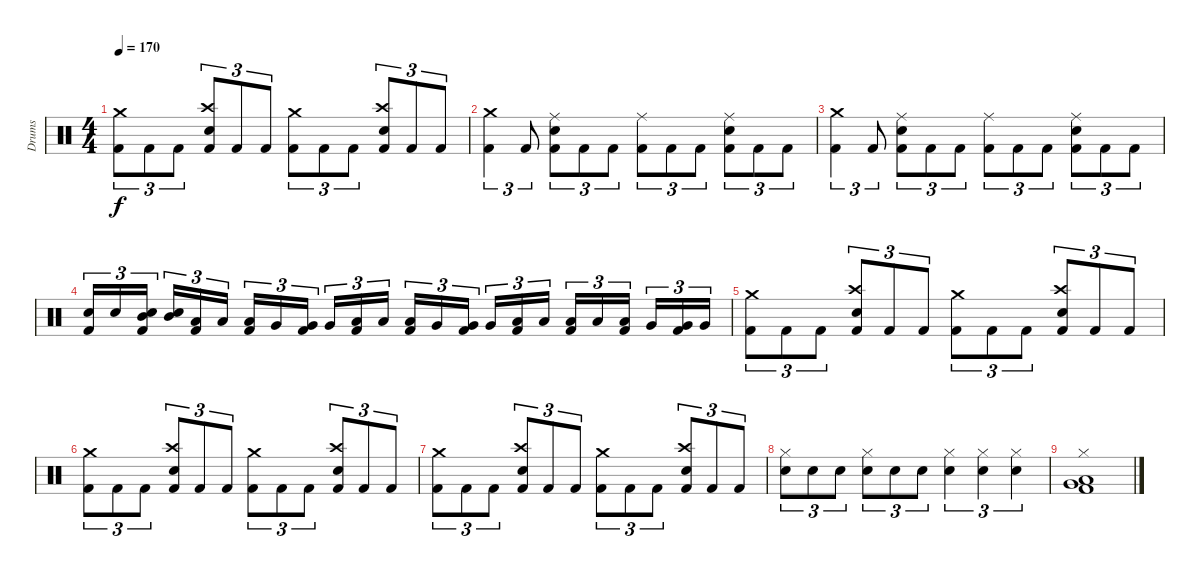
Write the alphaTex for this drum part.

\track ("Drums" "Drums") {instrument percussion}
\staff {score}
\articulation defaults
\ts (4 4)
\tempo 170
\clef neutral
\ks c
("Crash medium (hit)" "Kick (hit) 2").8{tu (3 2) dy f} "Kick (hit) 2".8{tu (3 2)} "Kick (hit) 2".8{tu (3 2)} ("Crash high (hit)" "Snare (hit) 2" "Kick (hit) 2").8{tu (3 2)} "Kick (hit) 2".8{tu (3 2)} "Kick (hit) 2".8{tu (3 2)} ("Crash medium (hit)" "Kick (hit) 2").8{tu (3 2)} "Kick (hit) 2".8{tu (3 2)} "Kick (hit) 2".8{tu (3 2)} ("Crash high (hit)" "Snare (hit) 2" "Kick (hit) 2").8{tu (3 2)} "Kick (hit) 2".8{tu (3 2)} "Kick (hit) 2".8{tu (3 2)} |
("Crash medium (hit)" "Kick (hit) 2").4{tu (3 2)} "Kick (hit) 2".8{tu (3 2)} ("Ride (middle)" "Snare (hit) 2" "Kick (hit) 2").8{tu (3 2)} "Kick (hit) 2".8{tu (3 2)} "Kick (hit) 2".8{tu (3 2)} ("Ride (middle)" "Kick (hit) 2").8{tu (3 2)} "Kick (hit) 2".8{tu (3 2)} "Kick (hit) 2".8{tu (3 2)} ("Ride (middle)" "Snare (hit) 2" "Kick (hit) 2").8{tu (3 2)} "Kick (hit) 2".8{tu (3 2)} "Kick (hit) 2".8{tu (3 2)} |
("Crash medium (hit)" "Kick (hit) 2").4{tu (3 2)} "Kick (hit) 2".8{tu (3 2)} ("Ride (middle)" "Snare (hit) 2" "Kick (hit) 2").8{tu (3 2)} "Kick (hit) 2".8{tu (3 2)} "Kick (hit) 2".8{tu (3 2)} ("Ride (middle)" "Kick (hit) 2").8{tu (3 2)} "Kick (hit) 2".8{tu (3 2)} "Kick (hit) 2".8{tu (3 2)} ("Ride (middle)" "Snare (hit) 2" "Kick (hit) 2").8{tu (3 2)} "Kick (hit) 2".8{tu (3 2)} "Kick (hit) 2".8{tu (3 2)} |
("Snare (hit) 2" "Kick (hit) 2").16{tu (3 2)} "Snare (hit) 2".16{tu (3 2)} ("Snare (hit) 2" "Mid Tom (hit)" "Kick (hit) 2").16{tu (3 2) beam splitsecondary} ("Snare (hit) 2" "Mid Tom (hit)").16{tu (3 2)} ("Low Tom (hit)" "Kick (hit) 2").16{tu (3 2)} "Low Tom (hit)".16{tu (3 2)} ("Low Tom (hit)" "Kick (hit) 2").16{tu (3 2)} "Very Low Tom (hit)".16{tu (3 2)} ("Very Low Tom (hit)" "Kick (hit) 2").16{tu (3 2) beam splitsecondary} "Very Low Tom (hit)".16{tu (3 2)} ("Low Floor Tom (hit)" "Kick (hit) 2").16{tu (3 2)} "Low Floor Tom (hit)".16{tu (3 2)} ("Low Floor Tom (hit)" "Kick (hit) 2").16{tu (3 2)} "Very Low Tom (hit)".16{tu (3 2)} ("Very Low Tom (hit)" "Kick (hit) 2").16{tu (3 2) beam splitsecondary} "Very Low Tom (hit)".16{tu (3 2)} ("Low Floor Tom (hit)" "Kick (hit) 2").16{tu (3 2)} "Low Floor Tom (hit)".16{tu (3 2)} ("Low Floor Tom (hit)" "Kick (hit) 2").16{tu (3 2)} "Low Floor Tom (hit)".16{tu (3 2)} ("Low Floor Tom (hit)" "Kick (hit) 2").16{tu (3 2) beam splitsecondary} "Very Low Tom (hit)".16{tu (3 2)} ("Very Low Tom (hit)" "Kick (hit) 2").16{tu (3 2)} "Very Low Tom (hit)".16{tu (3 2)} |
("Crash medium (hit)" "Kick (hit) 2").8{tu (3 2)} "Kick (hit) 2".8{tu (3 2)} "Kick (hit) 2".8{tu (3 2)} ("Crash high (hit)" "Snare (hit) 2" "Kick (hit) 2").8{tu (3 2)} "Kick (hit) 2".8{tu (3 2)} "Kick (hit) 2".8{tu (3 2)} ("Crash medium (hit)" "Kick (hit) 2").8{tu (3 2)} "Kick (hit) 2".8{tu (3 2)} "Kick (hit) 2".8{tu (3 2)} ("Crash high (hit)" "Snare (hit) 2" "Kick (hit) 2").8{tu (3 2)} "Kick (hit) 2".8{tu (3 2)} "Kick (hit) 2".8{tu (3 2)} |
("Crash medium (hit)" "Kick (hit) 2").8{tu (3 2)} "Kick (hit) 2".8{tu (3 2)} "Kick (hit) 2".8{tu (3 2)} ("Crash high (hit)" "Snare (hit) 2" "Kick (hit) 2").8{tu (3 2)} "Kick (hit) 2".8{tu (3 2)} "Kick (hit) 2".8{tu (3 2)} ("Crash medium (hit)" "Kick (hit) 2").8{tu (3 2)} "Kick (hit) 2".8{tu (3 2)} "Kick (hit) 2".8{tu (3 2)} ("Crash high (hit)" "Snare (hit) 2" "Kick (hit) 2").8{tu (3 2)} "Kick (hit) 2".8{tu (3 2)} "Kick (hit) 2".8{tu (3 2)} |
("Crash medium (hit)" "Kick (hit) 2").8{tu (3 2)} "Kick (hit) 2".8{tu (3 2)} "Kick (hit) 2".8{tu (3 2)} ("Crash high (hit)" "Snare (hit) 2" "Kick (hit) 2").8{tu (3 2)} "Kick (hit) 2".8{tu (3 2)} "Kick (hit) 2".8{tu (3 2)} ("Crash medium (hit)" "Kick (hit) 2").8{tu (3 2)} "Kick (hit) 2".8{tu (3 2)} "Kick (hit) 2".8{tu (3 2)} ("Crash high (hit)" "Snare (hit) 2" "Kick (hit) 2").8{tu (3 2)} "Kick (hit) 2".8{tu (3 2)} "Kick (hit) 2".8{tu (3 2)} |
("Hi-Hat (closed)" "Snare (hit) 2").8{tu (3 2)} "Snare (hit) 2".8{tu (3 2)} "Snare (hit) 2".8{tu (3 2)} ("Hi-Hat (closed)" "Snare (hit) 2").8{tu (3 2)} "Snare (hit) 2".8{tu (3 2)} "Snare (hit) 2".8{tu (3 2)} ("Hi-Hat (closed)" "Snare (hit) 2").4{tu (3 2)} ("Hi-Hat (closed)" "Snare (hit) 2").4{tu (3 2)} ("Hi-Hat (closed)" "Snare (hit) 2").4{tu (3 2)} |
("Hi-Hat (closed)" "Very Low Tom (hit)" "Low Tom (hit)" "Kick (hit) 2").1
